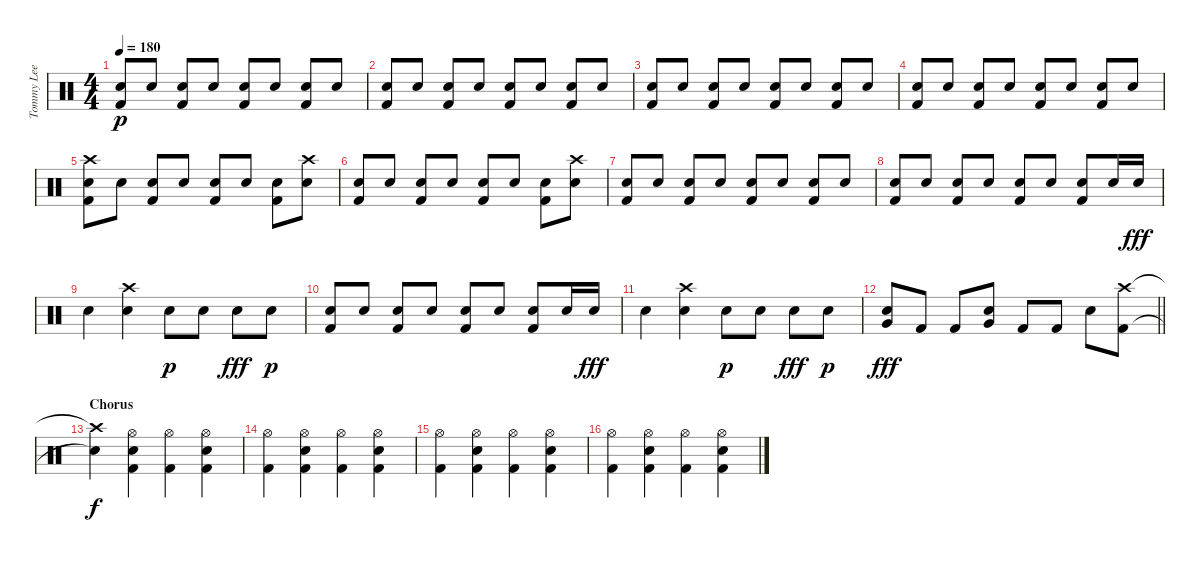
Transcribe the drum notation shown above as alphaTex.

\track ("Tommy Lee" "Tommy Lee") {instrument percussion}
\staff {score}
\articulation defaults
\ts (4 4)
\tempo 180
\clef neutral
\ks c
("Electric Snare (hit)" "Kick (hit) 2").8{dy p} "Electric Snare (hit)".8 ("Electric Snare (hit)" "Kick (hit) 2").8 "Electric Snare (hit)".8 ("Electric Snare (hit)" "Kick (hit) 2").8 "Electric Snare (hit)".8 ("Electric Snare (hit)" "Kick (hit) 2").8 "Electric Snare (hit)".8 |
("Electric Snare (hit)" "Kick (hit) 2").8 "Electric Snare (hit)".8 ("Electric Snare (hit)" "Kick (hit) 2").8 "Electric Snare (hit)".8 ("Electric Snare (hit)" "Kick (hit) 2").8 "Electric Snare (hit)".8 ("Electric Snare (hit)" "Kick (hit) 2").8 "Electric Snare (hit)".8 |
("Electric Snare (hit)" "Kick (hit) 2").8 "Electric Snare (hit)".8 ("Electric Snare (hit)" "Kick (hit) 2").8 "Electric Snare (hit)".8 ("Electric Snare (hit)" "Kick (hit) 2").8 "Electric Snare (hit)".8 ("Electric Snare (hit)" "Kick (hit) 2").8 "Electric Snare (hit)".8 |
("Electric Snare (hit)" "Kick (hit) 2").8 "Electric Snare (hit)".8 ("Electric Snare (hit)" "Kick (hit) 2").8 "Electric Snare (hit)".8 ("Electric Snare (hit)" "Kick (hit) 2").8 "Electric Snare (hit)".8 ("Electric Snare (hit)" "Kick (hit) 2").8 "Electric Snare (hit)".8 |
("Crash high (hit)" "Electric Snare (hit)" "Kick (hit) 2").8 "Electric Snare (hit)".8 ("Electric Snare (hit)" "Kick (hit) 2").8 "Electric Snare (hit)".8 ("Electric Snare (hit)" "Kick (hit) 2").8 "Electric Snare (hit)".8 ("Electric Snare (hit)" "Kick (hit) 2").8 ("Crash high (hit)" "Electric Snare (hit)").8 |
("Electric Snare (hit)" "Kick (hit) 2").8 "Electric Snare (hit)".8 ("Electric Snare (hit)" "Kick (hit) 2").8 "Electric Snare (hit)".8 ("Electric Snare (hit)" "Kick (hit) 2").8 "Electric Snare (hit)".8 ("Electric Snare (hit)" "Kick (hit) 2").8 ("Crash high (hit)" "Electric Snare (hit)").8 |
("Electric Snare (hit)" "Kick (hit) 2").8 "Electric Snare (hit)".8 ("Electric Snare (hit)" "Kick (hit) 2").8 "Electric Snare (hit)".8 ("Electric Snare (hit)" "Kick (hit) 2").8 "Electric Snare (hit)".8 ("Electric Snare (hit)" "Kick (hit) 2").8 "Electric Snare (hit)".8 |
("Electric Snare (hit)" "Kick (hit) 2").8 "Electric Snare (hit)".8 ("Electric Snare (hit)" "Kick (hit) 2").8 "Electric Snare (hit)".8 ("Electric Snare (hit)" "Kick (hit) 2").8 "Electric Snare (hit)".8 ("Electric Snare (hit)" "Kick (hit) 2").8 "Electric Snare (hit)".16 "Electric Snare (hit)".16{dy fff} |
"Electric Snare (hit)".4 ("Crash high (hit)" "Electric Snare (hit)").4 "Electric Snare (hit)".8{dy p} "Electric Snare (hit)".8 "Electric Snare (hit)".8{dy fff} "Electric Snare (hit)".8{dy p} |
("Electric Snare (hit)" "Kick (hit) 2").8 "Electric Snare (hit)".8 ("Electric Snare (hit)" "Kick (hit) 2").8 "Electric Snare (hit)".8 ("Electric Snare (hit)" "Kick (hit) 2").8 "Electric Snare (hit)".8 ("Electric Snare (hit)" "Kick (hit) 2").8 "Electric Snare (hit)".16 "Electric Snare (hit)".16{dy fff} |
"Electric Snare (hit)".4 ("Crash high (hit)" "Electric Snare (hit)").4 "Electric Snare (hit)".8{dy p} "Electric Snare (hit)".8 "Electric Snare (hit)".8{dy fff} "Electric Snare (hit)".8{dy p} |
\barLineRight lightlight
("Electric Snare (hit)" "Very Low Tom (hit)").8{dy fff} "Kick (hit) 2".8 "Kick (hit) 2".8 ("Electric Snare (hit)" "Very Low Tom (hit)").8 "Kick (hit) 2".8 "Kick (hit) 2".8 "Electric Snare (hit)".8 ("Crash high (hit)" "Kick (hit) 2").8 |
\section ("" "Chorus")
("Crash high (hit)"{t} "Snare (hit)"{t}).4{dy f} ("Hi-Hat (open)" "Electric Snare (hit)" "Kick (hit) 2").4 ("Hi-Hat (open)" "Kick (hit) 2").4 ("Hi-Hat (open)" "Electric Snare (hit)" "Kick (hit) 2").4 |
("Hi-Hat (open)" "Kick (hit) 2").4 ("Hi-Hat (open)" "Electric Snare (hit)" "Kick (hit) 2").4 ("Hi-Hat (open)" "Kick (hit) 2").4 ("Hi-Hat (open)" "Electric Snare (hit)" "Kick (hit) 2").4 |
("Hi-Hat (open)" "Kick (hit) 2").4 ("Hi-Hat (open)" "Electric Snare (hit)" "Kick (hit) 2").4 ("Hi-Hat (open)" "Kick (hit) 2").4 ("Hi-Hat (open)" "Electric Snare (hit)" "Kick (hit) 2").4 |
("Hi-Hat (open)" "Kick (hit) 2").4 ("Hi-Hat (open)" "Electric Snare (hit)" "Kick (hit) 2").4 ("Hi-Hat (open)" "Kick (hit) 2").4 ("Hi-Hat (open)" "Electric Snare (hit)" "Kick (hit) 2").4
